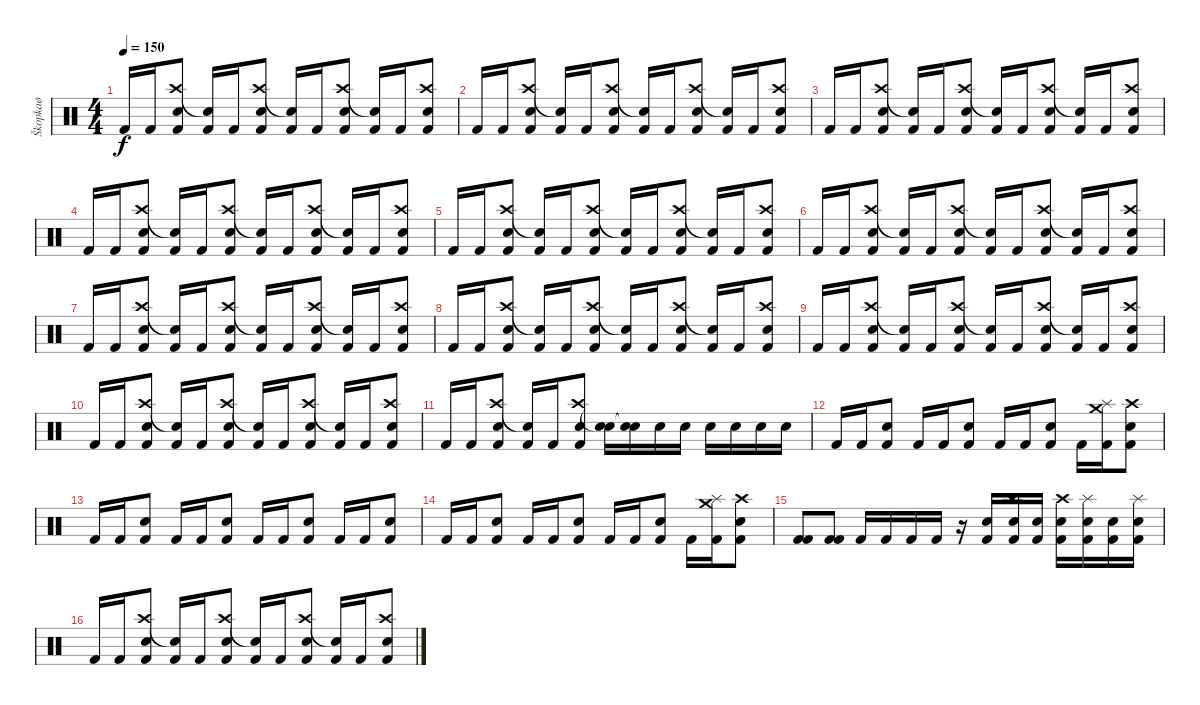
\track ("Škopkaø" "Škopkaø") {instrument percussion}
\staff {score}
\articulation defaults
\ts (4 4)
\tempo 150
\clef neutral
\ks c "Kick (hit) 2".16{dy f} "Kick (hit) 2".16
("Crash high (hit)" "Electric Snare (hit)" "Kick (hit) 2").8 ("Snare (hit)"{t} "Kick (hit) 2").16 "Kick (hit) 2".16 ("Crash high (hit)" "Electric Snare (hit)" "Kick (hit) 2").8 ("Snare (hit)"{t} "Kick (hit) 2").16 "Kick (hit) 2".16 ("Crash high (hit)" "Electric Snare (hit)" "Kick (hit) 2").8 ("Snare (hit)"{t} "Kick (hit) 2").16 "Kick (hit) 2".16 ("Crash high (hit)" "Electric Snare (hit)" "Kick (hit) 2").8 |
"Kick (hit) 2".16 "Kick (hit) 2".16 ("Crash high (hit)" "Electric Snare (hit)" "Kick (hit) 2").8 ("Snare (hit)"{t} "Kick (hit) 2").16 "Kick (hit) 2".16 ("Crash high (hit)" "Electric Snare (hit)" "Kick (hit) 2").8 ("Snare (hit)"{t} "Kick (hit) 2").16 "Kick (hit) 2".16 ("Crash high (hit)" "Electric Snare (hit)" "Kick (hit) 2").8 ("Snare (hit)"{t} "Kick (hit) 2").16 "Kick (hit) 2".16 ("Crash high (hit)" "Electric Snare (hit)" "Kick (hit) 2").8 |
"Kick (hit) 2".16 "Kick (hit) 2".16 ("Crash high (hit)" "Electric Snare (hit)" "Kick (hit) 2").8 ("Snare (hit)"{t} "Kick (hit) 2").16 "Kick (hit) 2".16 ("Crash high (hit)" "Electric Snare (hit)" "Kick (hit) 2").8 ("Snare (hit)"{t} "Kick (hit) 2").16 "Kick (hit) 2".16 ("Crash high (hit)" "Electric Snare (hit)" "Kick (hit) 2").8 ("Snare (hit)"{t} "Kick (hit) 2").16 "Kick (hit) 2".16 ("Crash high (hit)" "Electric Snare (hit)" "Kick (hit) 2").8 |
"Kick (hit) 2".16 "Kick (hit) 2".16 ("Crash high (hit)" "Electric Snare (hit)" "Kick (hit) 2").8 ("Snare (hit)"{t} "Kick (hit) 2").16 "Kick (hit) 2".16 ("Crash high (hit)" "Electric Snare (hit)" "Kick (hit) 2").8 ("Snare (hit)"{t} "Kick (hit) 2").16 "Kick (hit) 2".16 ("Crash high (hit)" "Electric Snare (hit)" "Kick (hit) 2").8 ("Snare (hit)"{t} "Kick (hit) 2").16 "Kick (hit) 2".16 ("Crash high (hit)" "Electric Snare (hit)" "Kick (hit) 2").8 |
"Kick (hit) 2".16 "Kick (hit) 2".16 ("Crash high (hit)" "Electric Snare (hit)" "Kick (hit) 2").8 ("Snare (hit)"{t} "Kick (hit) 2").16 "Kick (hit) 2".16 ("Crash high (hit)" "Electric Snare (hit)" "Kick (hit) 2").8 ("Snare (hit)"{t} "Kick (hit) 2").16 "Kick (hit) 2".16 ("Crash high (hit)" "Electric Snare (hit)" "Kick (hit) 2").8 ("Snare (hit)"{t} "Kick (hit) 2").16 "Kick (hit) 2".16 ("Crash high (hit)" "Electric Snare (hit)" "Kick (hit) 2").8 |
"Kick (hit) 2".16 "Kick (hit) 2".16 ("Crash high (hit)" "Electric Snare (hit)" "Kick (hit) 2").8 ("Snare (hit)"{t} "Kick (hit) 2").16 "Kick (hit) 2".16 ("Crash high (hit)" "Electric Snare (hit)" "Kick (hit) 2").8 ("Snare (hit)"{t} "Kick (hit) 2").16 "Kick (hit) 2".16 ("Crash high (hit)" "Electric Snare (hit)" "Kick (hit) 2").8 ("Snare (hit)"{t} "Kick (hit) 2").16 "Kick (hit) 2".16 ("Crash high (hit)" "Electric Snare (hit)" "Kick (hit) 2").8 |
"Kick (hit) 2".16 "Kick (hit) 2".16 ("Crash high (hit)" "Electric Snare (hit)" "Kick (hit) 2").8 ("Snare (hit)"{t} "Kick (hit) 2").16 "Kick (hit) 2".16 ("Crash high (hit)" "Electric Snare (hit)" "Kick (hit) 2").8 ("Snare (hit)"{t} "Kick (hit) 2").16 "Kick (hit) 2".16 ("Crash high (hit)" "Electric Snare (hit)" "Kick (hit) 2").8 ("Snare (hit)"{t} "Kick (hit) 2").16 "Kick (hit) 2".16 ("Crash high (hit)" "Electric Snare (hit)" "Kick (hit) 2").8 |
"Kick (hit) 2".16 "Kick (hit) 2".16 ("Crash high (hit)" "Electric Snare (hit)" "Kick (hit) 2").8 ("Snare (hit)"{t} "Kick (hit) 2").16 "Kick (hit) 2".16 ("Crash high (hit)" "Electric Snare (hit)" "Kick (hit) 2").8 ("Snare (hit)"{t} "Kick (hit) 2").16 "Kick (hit) 2".16 ("Crash high (hit)" "Electric Snare (hit)" "Kick (hit) 2").8 ("Snare (hit)"{t} "Kick (hit) 2").16 "Kick (hit) 2".16 ("Crash high (hit)" "Electric Snare (hit)" "Kick (hit) 2").8 |
"Kick (hit) 2".16 "Kick (hit) 2".16 ("Crash high (hit)" "Electric Snare (hit)" "Kick (hit) 2").8 ("Snare (hit)"{t} "Kick (hit) 2").16 "Kick (hit) 2".16 ("Crash high (hit)" "Electric Snare (hit)" "Kick (hit) 2").8 ("Snare (hit)"{t} "Kick (hit) 2").16 "Kick (hit) 2".16 ("Crash high (hit)" "Electric Snare (hit)" "Kick (hit) 2").8 ("Snare (hit)"{t} "Kick (hit) 2").16 "Kick (hit) 2".16 ("Crash high (hit)" "Electric Snare (hit)" "Kick (hit) 2").8 |
"Kick (hit) 2".16 "Kick (hit) 2".16 ("Crash high (hit)" "Electric Snare (hit)" "Kick (hit) 2").8 ("Snare (hit)"{t} "Kick (hit) 2").16 "Kick (hit) 2".16 ("Crash high (hit)" "Electric Snare (hit)" "Kick (hit) 2").8 ("Snare (hit)"{t} "Kick (hit) 2").16 "Kick (hit) 2".16 ("Crash high (hit)" "Electric Snare (hit)" "Kick (hit) 2").8 ("Snare (hit)"{t} "Kick (hit) 2").16 "Kick (hit) 2".16 ("Crash high (hit)" "Electric Snare (hit)" "Kick (hit) 2").8 |
"Kick (hit) 2".16 "Kick (hit) 2".16 ("Crash high (hit)" "Electric Snare (hit)" "Kick (hit) 2").8 ("Snare (hit)"{t} "Kick (hit) 2").16 "Kick (hit) 2".16 ("Crash high (hit)" "Electric Snare (hit)" "Kick (hit) 2").8 ("Snare (hit)"{t} "Electric Snare (hit)").16 ("Snare (hit)"{t} "Electric Snare (hit)").16 "Electric Snare (hit)".16 "Electric Snare (hit)".16 "Electric Snare (hit)".16 "Electric Snare (hit)".16 "Electric Snare (hit)".16 "Electric Snare (hit)".16 |
"Kick (hit) 2".16 "Kick (hit) 2".16 ("Electric Snare (hit)" "Kick (hit) 2").8 "Kick (hit) 2".16 "Kick (hit) 2".16 ("Electric Snare (hit)" "Kick (hit) 2").8 "Kick (hit) 2".16 "Kick (hit) 2".16 ("Electric Snare (hit)" "Kick (hit) 2").8 "Kick (hit) 2".16 ("Crash medium (hit)" "Splash (hit)" "Kick (hit) 2").16 ("Crash high (hit)" "Electric Snare (hit)" "Kick (hit) 2").8 |
"Kick (hit) 2".16 "Kick (hit) 2".16 ("Electric Snare (hit)" "Kick (hit) 2").8 "Kick (hit) 2".16 "Kick (hit) 2".16 ("Electric Snare (hit)" "Kick (hit) 2").8 "Kick (hit) 2".16 "Kick (hit) 2".16 ("Electric Snare (hit)" "Kick (hit) 2").8 "Kick (hit) 2".16 "Kick (hit) 2".16 ("Electric Snare (hit)" "Kick (hit) 2").8 |
"Kick (hit) 2".16 "Kick (hit) 2".16 ("Electric Snare (hit)" "Kick (hit) 2").8 "Kick (hit) 2".16 "Kick (hit) 2".16 ("Electric Snare (hit)" "Kick (hit) 2").8 "Kick (hit) 2".16 "Kick (hit) 2".16 ("Electric Snare (hit)" "Kick (hit) 2").8 "Kick (hit) 2".16 ("Crash medium (hit)" "Splash (hit)" "Kick (hit) 2").16 ("Crash high (hit)" "Electric Snare (hit)" "Kick (hit) 2").8 |
("Kick (hit) 2" "Kick (hit) 2").8 ("Kick (hit) 2" "Kick (hit) 2").8 "Kick (hit) 2".16 "Kick (hit) 2".16 "Kick (hit) 2".16 "Kick (hit) 2".16 r.16 ("Electric Snare (hit)" "Kick (hit) 2").16 ("Crash high (hit)" "Electric Snare (hit)" "Kick (hit) 2").16 ("Electric Snare (hit)" "Kick (hit) 2").16 ("Crash high (hit)" "Electric Snare (hit)" "Kick (hit) 2").16 ("Splash (hit)" "Electric Snare (hit)" "Kick (hit) 2").16 ("Electric Snare (hit)" "Kick (hit) 2").16 ("Splash (hit)" "Electric Snare (hit)" "Kick (hit) 2").16 |
"Kick (hit) 2".16 "Kick (hit) 2".16 ("Crash high (hit)" "Electric Snare (hit)" "Kick (hit) 2").8 ("Snare (hit)"{t} "Kick (hit) 2").16 "Kick (hit) 2".16 ("Crash high (hit)" "Electric Snare (hit)" "Kick (hit) 2").8 ("Snare (hit)"{t} "Kick (hit) 2").16 "Kick (hit) 2".16 ("Crash high (hit)" "Electric Snare (hit)" "Kick (hit) 2").8 ("Snare (hit)"{t} "Kick (hit) 2").16 "Kick (hit) 2".16 ("Crash high (hit)" "Electric Snare (hit)" "Kick (hit) 2").8
